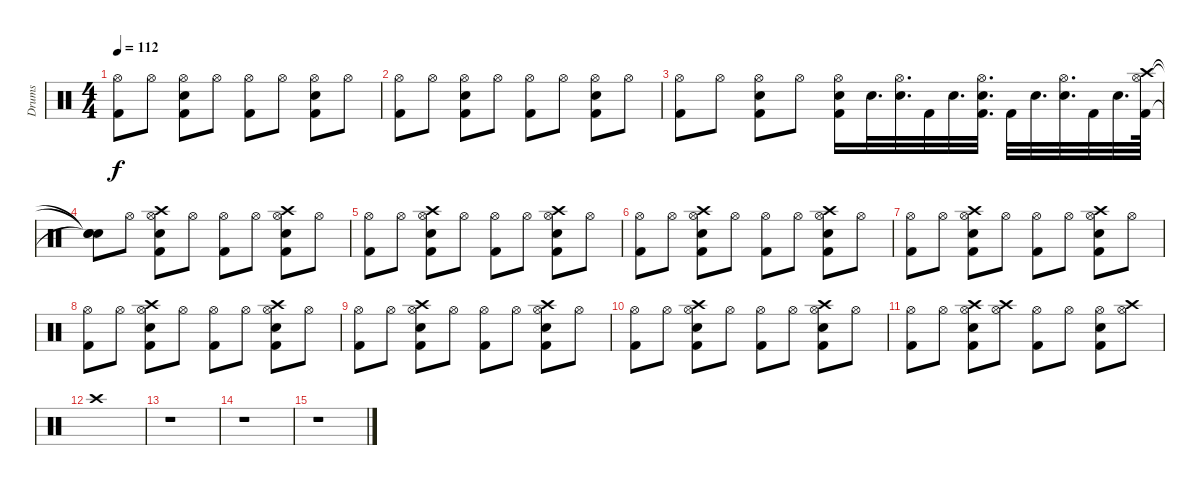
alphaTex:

\track ("Drums" "Drums") {instrument percussion}
\staff {score}
\articulation defaults
\ts (4 4)
\tempo 112
\clef neutral
\ks c
("Hi-Hat (open)" "Kick (hit) 2").8{dy f} "Hi-Hat (open)".8 ("Hi-Hat (open)" "Kick (hit) 2" "Snare (hit) 2").8 "Hi-Hat (open)".8 ("Kick (hit) 2" "Hi-Hat (open)").8 "Hi-Hat (open)".8 ("Kick (hit) 2" "Snare (hit) 2" "Hi-Hat (open)").8 "Hi-Hat (open)".8 |
("Hi-Hat (open)" "Kick (hit) 2").8 "Hi-Hat (open)".8 ("Hi-Hat (open)" "Kick (hit) 2" "Snare (hit) 2").8 "Hi-Hat (open)".8 ("Kick (hit) 2" "Hi-Hat (open)").8 "Hi-Hat (open)".8 ("Kick (hit) 2" "Snare (hit) 2" "Hi-Hat (open)").8 "Hi-Hat (open)".8 |
("Kick (hit) 2" "Hi-Hat (open)").8 "Hi-Hat (open)".8 ("Hi-Hat (open)" "Snare (hit) 2" "Kick (hit) 2").8 "Hi-Hat (open)".8 ("Kick (hit) 2" "Hi-Hat (open)" "Snare (hit) 2").16 "Snare (hit) 2".32{d} ("Hi-Hat (open)" "Snare (hit) 2").32{d} "Kick (hit) 2".32 "Snare (hit) 2".32{d} ("Snare (hit) 2" "Hi-Hat (open)" "Kick (hit) 2").32{d} "Kick (hit) 2".32 "Snare (hit) 2".32{d} ("Hi-Hat (open)" "Snare (hit) 2").32{d} "Kick (hit) 2".32 "Snare (hit) 2".32{d} ("Hi-Hat (open)" "Crash high (hit)" "Kick (hit) 2").64 |
("Snare (hit)"{t} "Snare (hit)"{t} "Snare (hit)"{t}).8 "Hi-Hat (open)".8 ("Hi-Hat (open)" "Kick (hit) 2" "Crash high (hit)" "Snare (hit) 2").8 "Hi-Hat (open)".8 ("Kick (hit) 2" "Hi-Hat (open)").8 "Hi-Hat (open)".8 ("Kick (hit) 2" "Crash high (hit)" "Hi-Hat (open)" "Snare (hit) 2").8 "Hi-Hat (open)".8 |
("Hi-Hat (open)" "Kick (hit) 2").8 "Hi-Hat (open)".8 ("Hi-Hat (open)" "Kick (hit) 2" "Snare (hit) 2" "Crash high (hit)").8 "Hi-Hat (open)".8 ("Kick (hit) 2" "Hi-Hat (open)").8 "Hi-Hat (open)".8 ("Kick (hit) 2" "Snare (hit) 2" "Hi-Hat (open)" "Crash high (hit)").8 "Hi-Hat (open)".8 |
("Hi-Hat (open)" "Kick (hit) 2").8 "Hi-Hat (open)".8 ("Hi-Hat (open)" "Kick (hit) 2" "Snare (hit) 2" "Crash high (hit)").8 "Hi-Hat (open)".8 ("Kick (hit) 2" "Hi-Hat (open)").8 "Hi-Hat (open)".8 ("Kick (hit) 2" "Snare (hit) 2" "Hi-Hat (open)" "Crash high (hit)").8 "Hi-Hat (open)".8 |
("Hi-Hat (open)" "Kick (hit) 2").8 "Hi-Hat (open)".8 ("Hi-Hat (open)" "Kick (hit) 2" "Snare (hit) 2" "Crash high (hit)").8 "Hi-Hat (open)".8 ("Kick (hit) 2" "Hi-Hat (open)").8 "Hi-Hat (open)".8 ("Kick (hit) 2" "Snare (hit) 2" "Hi-Hat (open)" "Crash high (hit)").8 "Hi-Hat (open)".8 |
("Hi-Hat (open)" "Kick (hit) 2").8 "Hi-Hat (open)".8 ("Hi-Hat (open)" "Kick (hit) 2" "Snare (hit) 2" "Crash high (hit)").8 "Hi-Hat (open)".8 ("Kick (hit) 2" "Hi-Hat (open)").8 "Hi-Hat (open)".8 ("Kick (hit) 2" "Snare (hit) 2" "Hi-Hat (open)" "Crash high (hit)").8 "Hi-Hat (open)".8 |
("Hi-Hat (open)" "Kick (hit) 2").8 "Hi-Hat (open)".8 ("Hi-Hat (open)" "Kick (hit) 2" "Snare (hit) 2" "Crash high (hit)").8 "Hi-Hat (open)".8 ("Kick (hit) 2" "Hi-Hat (open)").8 "Hi-Hat (open)".8 ("Kick (hit) 2" "Snare (hit) 2" "Hi-Hat (open)" "Crash high (hit)").8 "Hi-Hat (open)".8 |
("Hi-Hat (open)" "Kick (hit) 2").8 "Hi-Hat (open)".8 ("Hi-Hat (open)" "Kick (hit) 2" "Snare (hit) 2" "Crash high (hit)").8 "Hi-Hat (open)".8 ("Kick (hit) 2" "Hi-Hat (open)").8 "Hi-Hat (open)".8 ("Kick (hit) 2" "Snare (hit) 2" "Hi-Hat (open)" "Crash high (hit)").8 "Hi-Hat (open)".8 |
("Hi-Hat (open)" "Kick (hit) 2").8 "Hi-Hat (open)".8 ("Crash high (hit)" "Kick (hit) 2" "Hi-Hat (open)" "Snare (hit) 2").8 ("Crash high (hit)" "Hi-Hat (open)").8 ("Kick (hit) 2" "Hi-Hat (open)").8 "Hi-Hat (open)".8 ("Snare (hit) 2" "Kick (hit) 2" "Hi-Hat (open)").8 ("Hi-Hat (open)" "Crash high (hit)").8 |
"Crash high (hit)".1 |
r.1 |
r.1 |
r.1
